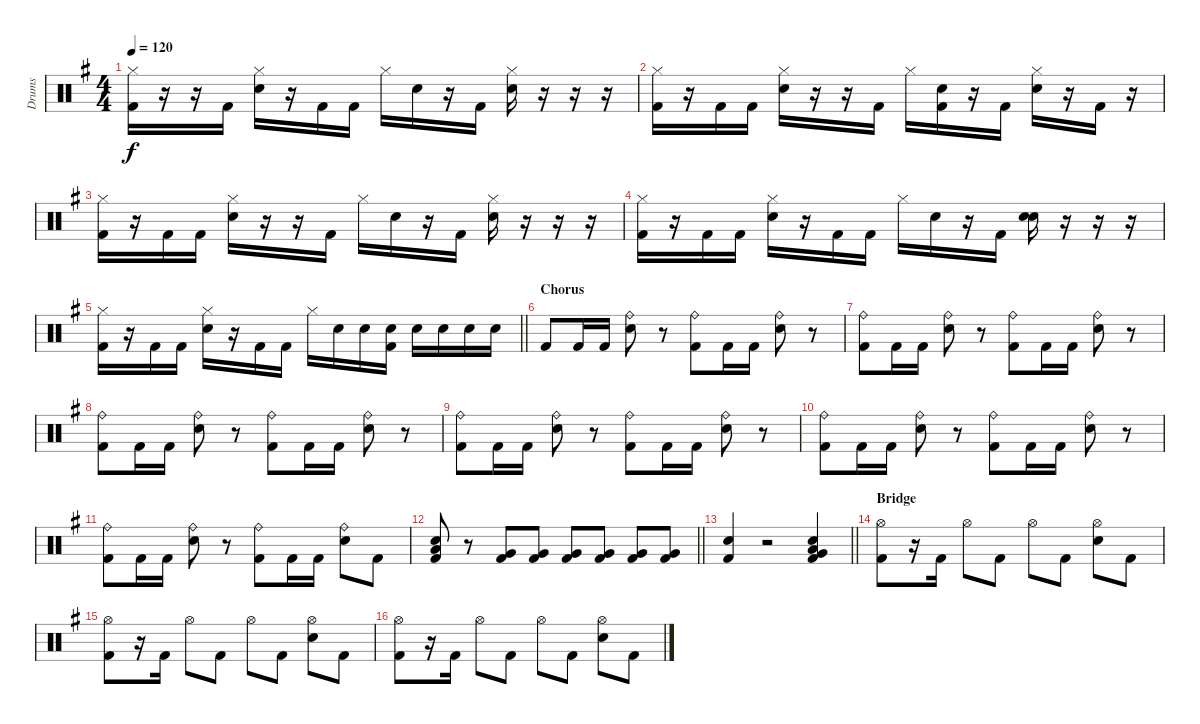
\track ("Drums" "Drums") {instrument percussion}
\staff {score}
\articulation defaults
\ts (4 4)
\tempo 120
\clef neutral
\ks g
("Hi-Hat (closed)" "Kick (hit) 2").16{dy f} r.16 r.16 "Kick (hit) 2".16 ("Hi-Hat (closed)" "Electric Snare (hit)").16 r.16 "Kick (hit) 2".16 "Kick (hit) 2".16 "Hi-Hat (closed)".16 "Electric Snare (hit)".16 r.16 "Kick (hit) 2".16 ("Hi-Hat (closed)" "Electric Snare (hit)").16 r.16 r.16 r.16 |
("Hi-Hat (closed)" "Kick (hit) 2").16 r.16 "Kick (hit) 2".16 "Kick (hit) 2".16 ("Hi-Hat (closed)" "Electric Snare (hit)").16 r.16 r.16 "Kick (hit) 2".16 "Hi-Hat (closed)".16 ("Electric Snare (hit)" "Kick (hit) 2").16 r.16 "Kick (hit) 2".16 ("Hi-Hat (closed)" "Electric Snare (hit)").16 r.16 "Kick (hit) 2".16 r.16 |
("Hi-Hat (closed)" "Kick (hit) 2").16 r.16 "Kick (hit) 2".16 "Kick (hit) 2".16 ("Hi-Hat (closed)" "Electric Snare (hit)").16 r.16 r.16 "Kick (hit) 2".16 "Hi-Hat (closed)".16 "Electric Snare (hit)".16 r.16 "Kick (hit) 2".16 ("Hi-Hat (closed)" "Electric Snare (hit)").16 r.16 r.16 r.16 |
("Hi-Hat (closed)" "Kick (hit) 2").16 r.16 "Kick (hit) 2".16 "Kick (hit) 2".16 ("Hi-Hat (closed)" "Electric Snare (hit)").16 r.16 "Kick (hit) 2".16 "Kick (hit) 2".16 "Hi-Hat (closed)".16 "Electric Snare (hit)".16 r.16 "Kick (hit) 2".16 ("Electric Snare (hit)" "Electric Snare (hit)").16 r.16 r.16 r.16 |
\barLineRight lightlight
("Hi-Hat (closed)" "Kick (hit) 2").16 r.16 "Kick (hit) 2".16 "Kick (hit) 2".16 ("Hi-Hat (closed)" "Electric Snare (hit)").16 r.16 "Kick (hit) 2".16 "Kick (hit) 2".16 "Hi-Hat (closed)".16 "Electric Snare (hit)".16 "Electric Snare (hit)".16 ("Electric Snare (hit)" "Kick (hit) 2").16 "Electric Snare (hit)".16 "Electric Snare (hit)".16 "Electric Snare (hit)".16 "Electric Snare (hit)".16 |
\section ("" "Chorus")
"Kick (hit) 2".8 "Kick (hit) 2".16 "Kick (hit) 2".16 ("Ride (bell)" "Electric Snare (hit)").8 r.8 ("Ride (bell)" "Kick (hit) 2").8 "Kick (hit) 2".16 "Kick (hit) 2".16 ("Ride (bell)" "Electric Snare (hit)").8 r.8 |
("Ride (bell)" "Kick (hit) 2").8 "Kick (hit) 2".16 "Kick (hit) 2".16 ("Ride (bell)" "Electric Snare (hit)").8 r.8 ("Ride (bell)" "Kick (hit) 2").8 "Kick (hit) 2".16 "Kick (hit) 2".16 ("Ride (bell)" "Electric Snare (hit)").8 r.8 |
("Ride (bell)" "Kick (hit) 2").8 "Kick (hit) 2".16 "Kick (hit) 2".16 ("Ride (bell)" "Electric Snare (hit)").8 r.8 ("Ride (bell)" "Kick (hit) 2").8 "Kick (hit) 2".16 "Kick (hit) 2".16 ("Ride (bell)" "Electric Snare (hit)").8 r.8 |
("Ride (bell)" "Kick (hit) 2").8 "Kick (hit) 2".16 "Kick (hit) 2".16 ("Ride (bell)" "Electric Snare (hit)").8 r.8 ("Ride (bell)" "Kick (hit) 2").8 "Kick (hit) 2".16 "Kick (hit) 2".16 ("Ride (bell)" "Electric Snare (hit)").8 r.8 |
("Ride (bell)" "Kick (hit) 2").8 "Kick (hit) 2".16 "Kick (hit) 2".16 ("Ride (bell)" "Electric Snare (hit)").8 r.8 ("Ride (bell)" "Kick (hit) 2").8 "Kick (hit) 2".16 "Kick (hit) 2".16 ("Ride (bell)" "Electric Snare (hit)").8 r.8 |
("Ride (bell)" "Kick (hit) 2").8 "Kick (hit) 2".16 "Kick (hit) 2".16 ("Ride (bell)" "Electric Snare (hit)").8 r.8 ("Ride (bell)" "Kick (hit) 2").8 "Kick (hit) 2".16 "Kick (hit) 2".16 ("Ride (bell)" "Electric Snare (hit)").8 "Kick (hit) 2".8 |
\barLineRight lightlight
("Electric Snare (hit)" "Low Tom (hit)" "Kick (hit) 2").8 r.8 ("Very Low Tom (hit)" "Kick (hit) 2").8 ("Very Low Tom (hit)" "Kick (hit) 2").8 ("Very Low Tom (hit)" "Kick (hit) 2").8 ("Very Low Tom (hit)" "Kick (hit) 2").8 ("Very Low Tom (hit)" "Kick (hit) 2").8 ("Very Low Tom (hit)" "Kick (hit) 2").8 |
\barLineRight lightlight
("Electric Snare (hit)" "Kick (hit) 2").4 r.2 ("Electric Snare (hit)" "Very Low Tom (hit)" "Low Floor Tom (hit)" "Kick (hit) 2").4 |
\section ("" "Bridge")
("Hi-Hat (open)" "Kick (hit) 2").8 r.16 "Kick (hit) 2".16 "Hi-Hat (open)".8 "Kick (hit) 2".8 "Hi-Hat (open)".8 "Kick (hit) 2".8 ("Hi-Hat (open)" "Electric Snare (hit)").8 "Kick (hit) 2".8 |
("Hi-Hat (open)" "Kick (hit) 2").8 r.16 "Kick (hit) 2".16 "Hi-Hat (open)".8 "Kick (hit) 2".8 "Hi-Hat (open)".8 "Kick (hit) 2".8 ("Hi-Hat (open)" "Electric Snare (hit)").8 "Kick (hit) 2".8 |
("Hi-Hat (open)" "Kick (hit) 2").8 r.16 "Kick (hit) 2".16 "Hi-Hat (open)".8 "Kick (hit) 2".8 "Hi-Hat (open)".8 "Kick (hit) 2".8 ("Hi-Hat (open)" "Electric Snare (hit)").8 "Kick (hit) 2".8
